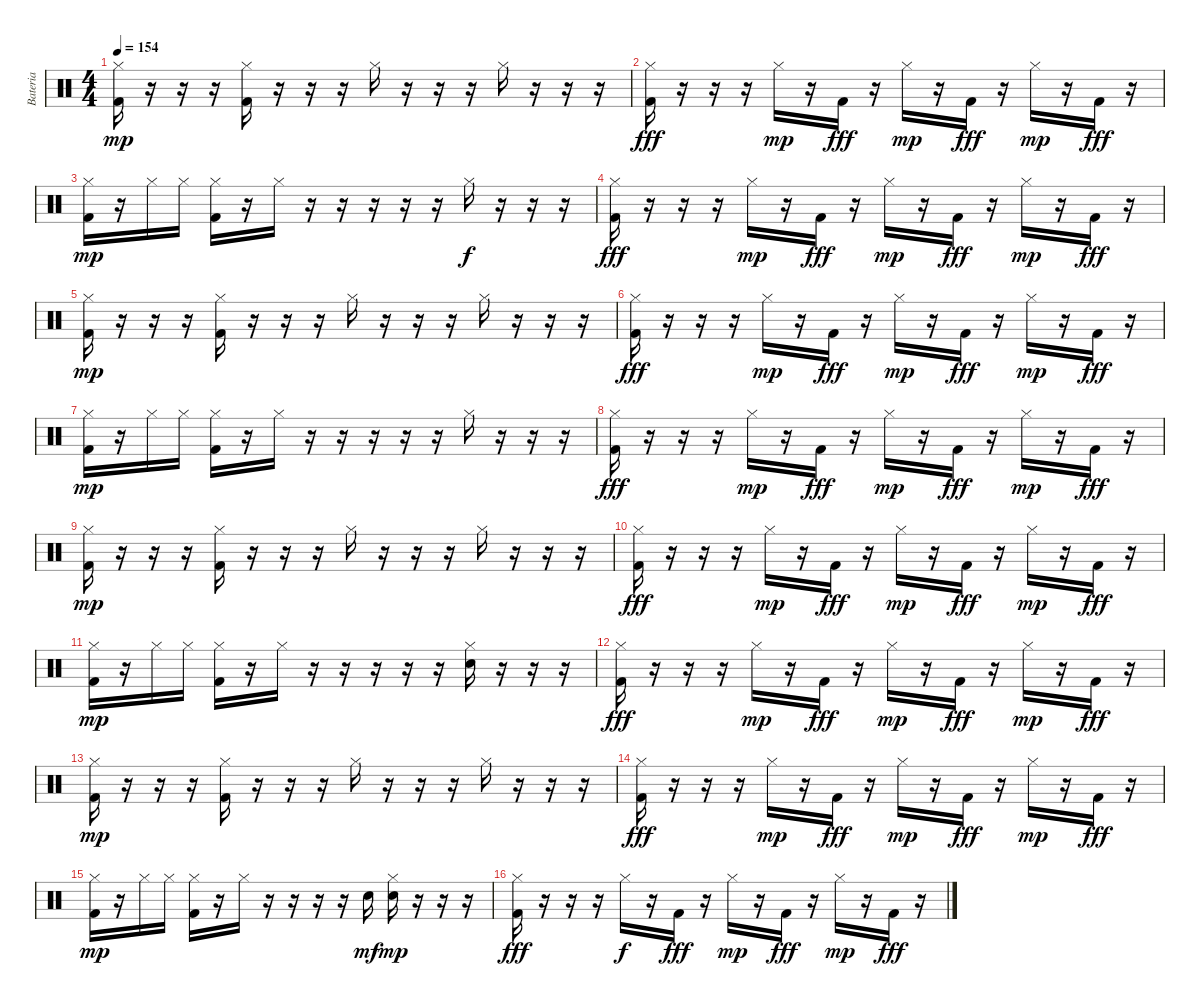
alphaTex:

\track ("Bateria" "Bateria") {instrument percussion}
\staff {score}
\articulation defaults
\ts (4 4)
\tempo 154
\clef neutral
\ks c
("Hi-Hat (closed)" "Kick (hit) 2").16{dy mp} r.16 r.16 r.16 ("Hi-Hat (closed)" "Kick (hit) 2").16 r.16 r.16 r.16 "Hi-Hat (closed)".16 r.16 r.16 r.16 "Hi-Hat (closed)".16 r.16 r.16 r.16 |
("Hi-Hat (closed)" "Kick (hit) 2").16{dy fff} r.16 r.16 r.16 "Hi-Hat (closed)".16{dy mp} r.16 "Kick (hit) 2".16{dy fff} r.16 "Hi-Hat (closed)".16{dy mp} r.16 "Kick (hit) 2".16{dy fff} r.16 "Hi-Hat (closed)".16{dy mp} r.16 "Kick (hit) 2".16{dy fff} r.16 |
("Hi-Hat (closed)" "Kick (hit) 2").16{dy mp} r.16 "Hi-Hat (closed)".16 "Hi-Hat (closed)".16 ("Hi-Hat (closed)" "Kick (hit) 2").16 r.16 "Hi-Hat (closed)".16 r.16 r.16 r.16 r.16 r.16 "Hi-Hat (closed)".16{dy f} r.16 r.16 r.16 |
("Hi-Hat (closed)" "Kick (hit) 2").16{dy fff} r.16 r.16 r.16 "Hi-Hat (closed)".16{dy mp} r.16 "Kick (hit) 2".16{dy fff} r.16 "Hi-Hat (closed)".16{dy mp} r.16 "Kick (hit) 2".16{dy fff} r.16 "Hi-Hat (closed)".16{dy mp} r.16 "Kick (hit) 2".16{dy fff} r.16 |
("Hi-Hat (closed)" "Kick (hit) 2").16{dy mp} r.16 r.16 r.16 ("Hi-Hat (closed)" "Kick (hit) 2").16 r.16 r.16 r.16 "Hi-Hat (closed)".16 r.16 r.16 r.16 "Hi-Hat (closed)".16 r.16 r.16 r.16 |
("Hi-Hat (closed)" "Kick (hit) 2").16{dy fff} r.16 r.16 r.16 "Hi-Hat (closed)".16{dy mp} r.16 "Kick (hit) 2".16{dy fff} r.16 "Hi-Hat (closed)".16{dy mp} r.16 "Kick (hit) 2".16{dy fff} r.16 "Hi-Hat (closed)".16{dy mp} r.16 "Kick (hit) 2".16{dy fff} r.16 |
("Hi-Hat (closed)" "Kick (hit) 2").16{dy mp} r.16 "Hi-Hat (closed)".16 "Hi-Hat (closed)".16 ("Hi-Hat (closed)" "Kick (hit) 2").16 r.16 "Hi-Hat (closed)".16 r.16 r.16 r.16 r.16 r.16 "Hi-Hat (closed)".16 r.16 r.16 r.16 |
("Hi-Hat (closed)" "Kick (hit) 2").16{dy fff} r.16 r.16 r.16 "Hi-Hat (closed)".16{dy mp} r.16 "Kick (hit) 2".16{dy fff} r.16 "Hi-Hat (closed)".16{dy mp} r.16 "Kick (hit) 2".16{dy fff} r.16 "Hi-Hat (closed)".16{dy mp} r.16 "Kick (hit) 2".16{dy fff} r.16 |
("Hi-Hat (closed)" "Kick (hit) 2").16{dy mp} r.16 r.16 r.16 ("Hi-Hat (closed)" "Kick (hit) 2").16 r.16 r.16 r.16 "Hi-Hat (closed)".16 r.16 r.16 r.16 "Hi-Hat (closed)".16 r.16 r.16 r.16 |
("Hi-Hat (closed)" "Kick (hit) 2").16{dy fff} r.16 r.16 r.16 "Hi-Hat (closed)".16{dy mp} r.16 "Kick (hit) 2".16{dy fff} r.16 "Hi-Hat (closed)".16{dy mp} r.16 "Kick (hit) 2".16{dy fff} r.16 "Hi-Hat (closed)".16{dy mp} r.16 "Kick (hit) 2".16{dy fff} r.16 |
("Hi-Hat (closed)" "Kick (hit) 2").16{dy mp} r.16 "Hi-Hat (closed)".16 "Hi-Hat (closed)".16 ("Hi-Hat (closed)" "Kick (hit) 2").16 r.16 "Hi-Hat (closed)".16 r.16 r.16 r.16 r.16 r.16 ("Hi-Hat (closed)" "Electric Snare (hit)").16 r.16 r.16 r.16 |
("Hi-Hat (closed)" "Kick (hit) 2").16{dy fff} r.16 r.16 r.16 "Hi-Hat (closed)".16{dy mp} r.16 "Kick (hit) 2".16{dy fff} r.16 "Hi-Hat (closed)".16{dy mp} r.16 "Kick (hit) 2".16{dy fff} r.16 "Hi-Hat (closed)".16{dy mp} r.16 "Kick (hit) 2".16{dy fff} r.16 |
("Hi-Hat (closed)" "Kick (hit) 2").16{dy mp} r.16 r.16 r.16 ("Hi-Hat (closed)" "Kick (hit) 2").16 r.16 r.16 r.16 "Hi-Hat (closed)".16 r.16 r.16 r.16 "Hi-Hat (closed)".16 r.16 r.16 r.16 |
("Hi-Hat (closed)" "Kick (hit) 2").16{dy fff} r.16 r.16 r.16 "Hi-Hat (closed)".16{dy mp} r.16 "Kick (hit) 2".16{dy fff} r.16 "Hi-Hat (closed)".16{dy mp} r.16 "Kick (hit) 2".16{dy fff} r.16 "Hi-Hat (closed)".16{dy mp} r.16 "Kick (hit) 2".16{dy fff} r.16 |
("Hi-Hat (closed)" "Kick (hit) 2").16{dy mp} r.16 "Hi-Hat (closed)".16 "Hi-Hat (closed)".16 ("Hi-Hat (closed)" "Kick (hit) 2").16 r.16 "Hi-Hat (closed)".16 r.16 r.16 r.16 r.16 "Electric Snare (hit)".16{dy mf} ("Hi-Hat (closed)" "Electric Snare (hit)").16{dy mp} r.16 r.16 r.16 |
("Hi-Hat (closed)" "Kick (hit) 2").16{dy fff} r.16 r.16 r.16 "Hi-Hat (closed)".16{dy f} r.16 "Kick (hit) 2".16{dy fff} r.16 "Hi-Hat (closed)".16{dy mp} r.16 "Kick (hit) 2".16{dy fff} r.16 "Hi-Hat (closed)".16{dy mp} r.16 "Kick (hit) 2".16{dy fff} r.16
